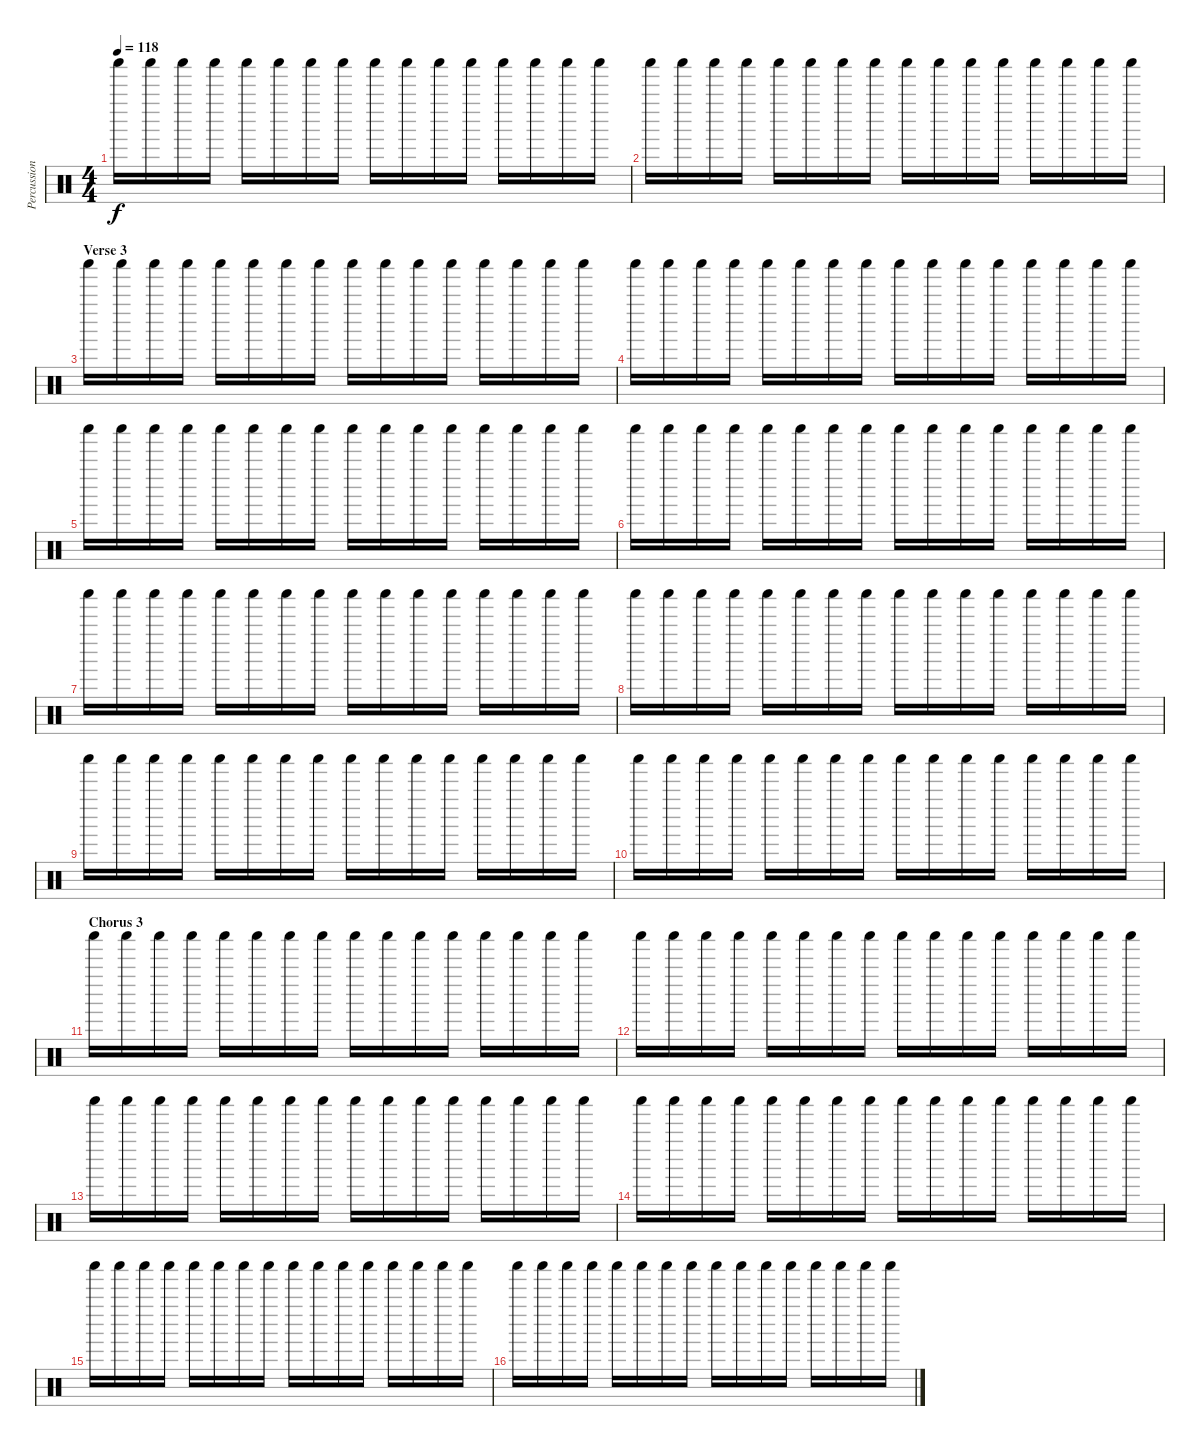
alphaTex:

\track ("Percussion" "Percussion") {instrument percussion}
\staff {score}
\articulation defaults
\ts (4 4)
\tempo 118
\clef neutral
\ks c "Shaker (hit)".16{dy f} "Shaker (hit)".16 "Shaker (hit)".16 "Shaker (hit)".16 "Shaker (hit)".16 "Shaker (hit)".16 "Shaker (hit)".16 "Shaker (hit)".16 "Shaker (hit)".16 "Shaker (hit)".16 "Shaker (hit)".16 "Shaker (hit)".16 "Shaker (hit)".16 "Shaker (hit)".16 "Shaker (hit)".16 "Shaker (hit)".16
|
"Shaker (hit)".16 "Shaker (hit)".16 "Shaker (hit)".16 "Shaker (hit)".16 "Shaker (hit)".16 "Shaker (hit)".16 "Shaker (hit)".16 "Shaker (hit)".16 "Shaker (hit)".16 "Shaker (hit)".16 "Shaker (hit)".16 "Shaker (hit)".16 "Shaker (hit)".16 "Shaker (hit)".16 "Shaker (hit)".16 "Shaker (hit)".16 |
\section ("" "Verse 3")
"Shaker (hit)".16 "Shaker (hit)".16 "Shaker (hit)".16 "Shaker (hit)".16 "Shaker (hit)".16 "Shaker (hit)".16 "Shaker (hit)".16 "Shaker (hit)".16 "Shaker (hit)".16 "Shaker (hit)".16 "Shaker (hit)".16 "Shaker (hit)".16 "Shaker (hit)".16 "Shaker (hit)".16 "Shaker (hit)".16 "Shaker (hit)".16 |
"Shaker (hit)".16 "Shaker (hit)".16 "Shaker (hit)".16 "Shaker (hit)".16 "Shaker (hit)".16 "Shaker (hit)".16 "Shaker (hit)".16 "Shaker (hit)".16 "Shaker (hit)".16 "Shaker (hit)".16 "Shaker (hit)".16 "Shaker (hit)".16 "Shaker (hit)".16 "Shaker (hit)".16 "Shaker (hit)".16 "Shaker (hit)".16 |
"Shaker (hit)".16 "Shaker (hit)".16 "Shaker (hit)".16 "Shaker (hit)".16 "Shaker (hit)".16 "Shaker (hit)".16 "Shaker (hit)".16 "Shaker (hit)".16 "Shaker (hit)".16 "Shaker (hit)".16 "Shaker (hit)".16 "Shaker (hit)".16 "Shaker (hit)".16 "Shaker (hit)".16 "Shaker (hit)".16 "Shaker (hit)".16 |
"Shaker (hit)".16 "Shaker (hit)".16 "Shaker (hit)".16 "Shaker (hit)".16 "Shaker (hit)".16 "Shaker (hit)".16 "Shaker (hit)".16 "Shaker (hit)".16 "Shaker (hit)".16 "Shaker (hit)".16 "Shaker (hit)".16 "Shaker (hit)".16 "Shaker (hit)".16 "Shaker (hit)".16 "Shaker (hit)".16 "Shaker (hit)".16 |
"Shaker (hit)".16 "Shaker (hit)".16 "Shaker (hit)".16 "Shaker (hit)".16 "Shaker (hit)".16 "Shaker (hit)".16 "Shaker (hit)".16 "Shaker (hit)".16 "Shaker (hit)".16 "Shaker (hit)".16 "Shaker (hit)".16 "Shaker (hit)".16 "Shaker (hit)".16 "Shaker (hit)".16 "Shaker (hit)".16 "Shaker (hit)".16 |
"Shaker (hit)".16 "Shaker (hit)".16 "Shaker (hit)".16 "Shaker (hit)".16 "Shaker (hit)".16 "Shaker (hit)".16 "Shaker (hit)".16 "Shaker (hit)".16 "Shaker (hit)".16 "Shaker (hit)".16 "Shaker (hit)".16 "Shaker (hit)".16 "Shaker (hit)".16 "Shaker (hit)".16 "Shaker (hit)".16 "Shaker (hit)".16 |
"Shaker (hit)".16 "Shaker (hit)".16 "Shaker (hit)".16 "Shaker (hit)".16 "Shaker (hit)".16 "Shaker (hit)".16 "Shaker (hit)".16 "Shaker (hit)".16 "Shaker (hit)".16 "Shaker (hit)".16 "Shaker (hit)".16 "Shaker (hit)".16 "Shaker (hit)".16 "Shaker (hit)".16 "Shaker (hit)".16 "Shaker (hit)".16 |
"Shaker (hit)".16 "Shaker (hit)".16 "Shaker (hit)".16 "Shaker (hit)".16 "Shaker (hit)".16 "Shaker (hit)".16 "Shaker (hit)".16 "Shaker (hit)".16 "Shaker (hit)".16 "Shaker (hit)".16 "Shaker (hit)".16 "Shaker (hit)".16 "Shaker (hit)".16 "Shaker (hit)".16 "Shaker (hit)".16 "Shaker (hit)".16 |
\section ("" "Chorus 3")
"Shaker (hit)".16 "Shaker (hit)".16 "Shaker (hit)".16 "Shaker (hit)".16 "Shaker (hit)".16 "Shaker (hit)".16 "Shaker (hit)".16 "Shaker (hit)".16 "Shaker (hit)".16 "Shaker (hit)".16 "Shaker (hit)".16 "Shaker (hit)".16 "Shaker (hit)".16 "Shaker (hit)".16 "Shaker (hit)".16 "Shaker (hit)".16 |
"Shaker (hit)".16 "Shaker (hit)".16 "Shaker (hit)".16 "Shaker (hit)".16 "Shaker (hit)".16 "Shaker (hit)".16 "Shaker (hit)".16 "Shaker (hit)".16 "Shaker (hit)".16 "Shaker (hit)".16 "Shaker (hit)".16 "Shaker (hit)".16 "Shaker (hit)".16 "Shaker (hit)".16 "Shaker (hit)".16 "Shaker (hit)".16 |
"Shaker (hit)".16 "Shaker (hit)".16 "Shaker (hit)".16 "Shaker (hit)".16 "Shaker (hit)".16 "Shaker (hit)".16 "Shaker (hit)".16 "Shaker (hit)".16 "Shaker (hit)".16 "Shaker (hit)".16 "Shaker (hit)".16 "Shaker (hit)".16 "Shaker (hit)".16 "Shaker (hit)".16 "Shaker (hit)".16 "Shaker (hit)".16 |
"Shaker (hit)".16 "Shaker (hit)".16 "Shaker (hit)".16 "Shaker (hit)".16 "Shaker (hit)".16 "Shaker (hit)".16 "Shaker (hit)".16 "Shaker (hit)".16 "Shaker (hit)".16 "Shaker (hit)".16 "Shaker (hit)".16 "Shaker (hit)".16 "Shaker (hit)".16 "Shaker (hit)".16 "Shaker (hit)".16 "Shaker (hit)".16 |
"Shaker (hit)".16 "Shaker (hit)".16 "Shaker (hit)".16 "Shaker (hit)".16 "Shaker (hit)".16 "Shaker (hit)".16 "Shaker (hit)".16 "Shaker (hit)".16 "Shaker (hit)".16 "Shaker (hit)".16 "Shaker (hit)".16 "Shaker (hit)".16 "Shaker (hit)".16 "Shaker (hit)".16 "Shaker (hit)".16 "Shaker (hit)".16 |
"Shaker (hit)".16 "Shaker (hit)".16 "Shaker (hit)".16 "Shaker (hit)".16 "Shaker (hit)".16 "Shaker (hit)".16 "Shaker (hit)".16 "Shaker (hit)".16 "Shaker (hit)".16 "Shaker (hit)".16 "Shaker (hit)".16 "Shaker (hit)".16 "Shaker (hit)".16 "Shaker (hit)".16 "Shaker (hit)".16 "Shaker (hit)".16
